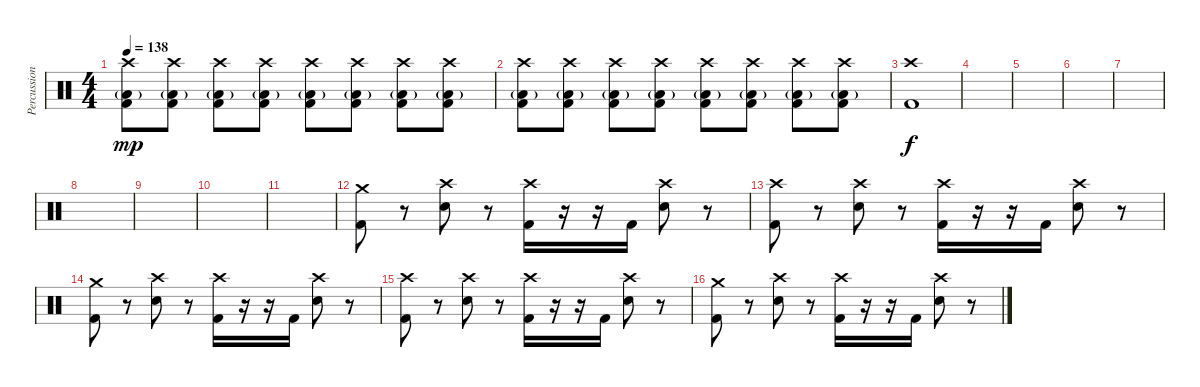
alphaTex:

\track ("Percussion" "Percussion") {instrument percussion}
\staff {score}
\articulation defaults
\ts (4 4)
\tempo 138
\clef neutral
\ks c
("Crash high (hit)" "Low Floor Tom (hit)"{g} "Kick (hit) 2").8{dy mp} ("Crash high (hit)" "Low Floor Tom (hit)"{g} "Kick (hit) 2").8 ("Crash high (hit)" "Low Floor Tom (hit)"{g} "Kick (hit) 2").8 ("Crash high (hit)" "Low Floor Tom (hit)"{g} "Kick (hit) 2").8 ("Crash high (hit)" "Low Floor Tom (hit)"{g} "Kick (hit) 2").8 ("Crash high (hit)" "Low Floor Tom (hit)"{g} "Kick (hit) 2").8 ("Crash high (hit)" "Low Floor Tom (hit)"{g} "Kick (hit) 2").8 ("Crash high (hit)" "Low Floor Tom (hit)"{g} "Kick (hit) 2").8 |
("Crash high (hit)" "Low Floor Tom (hit)"{g} "Kick (hit) 2").8 ("Crash high (hit)" "Low Floor Tom (hit)"{g} "Kick (hit) 2").8 ("Crash high (hit)" "Low Floor Tom (hit)"{g} "Kick (hit) 2").8 ("Crash high (hit)" "Low Floor Tom (hit)"{g} "Kick (hit) 2").8 ("Crash high (hit)" "Low Floor Tom (hit)"{g} "Kick (hit) 2").8 ("Crash high (hit)" "Low Floor Tom (hit)"{g} "Kick (hit) 2").8 ("Crash high (hit)" "Low Floor Tom (hit)"{g} "Kick (hit) 2").8 ("Crash high (hit)" "Low Floor Tom (hit)"{g} "Kick (hit) 2").8 |
("Crash high (hit)" "Kick (hit) 2").1{dy f} |
|
|
|
|
|
|
|
|
("Crash medium (hit)" "Kick (hit) 2").8 r.8 ("Crash high (hit)" "Electric Snare (hit)").8 r.8 ("Crash high (hit)" "Kick (hit) 2").16 r.16 r.16 "Kick (hit) 2".16 ("Crash high (hit)" "Electric Snare (hit)").8 r.8 |
("Crash high (hit)" "Kick (hit) 2").8 r.8 ("Crash high (hit)" "Electric Snare (hit)").8 r.8 ("Crash high (hit)" "Kick (hit) 2").16 r.16 r.16 "Kick (hit) 2".16 ("Crash high (hit)" "Electric Snare (hit)").8 r.8 |
("Crash medium (hit)" "Kick (hit) 2").8 r.8 ("Crash high (hit)" "Electric Snare (hit)").8 r.8 ("Crash high (hit)" "Kick (hit) 2").16 r.16 r.16 "Kick (hit) 2".16 ("Crash high (hit)" "Electric Snare (hit)").8 r.8 |
("Crash high (hit)" "Kick (hit) 2").8 r.8 ("Crash high (hit)" "Electric Snare (hit)").8 r.8 ("Crash high (hit)" "Kick (hit) 2").16 r.16 r.16 "Kick (hit) 2".16 ("Crash high (hit)" "Electric Snare (hit)").8 r.8 |
("Crash medium (hit)" "Kick (hit) 2").8 r.8 ("Crash high (hit)" "Electric Snare (hit)").8 r.8 ("Crash high (hit)" "Kick (hit) 2").16 r.16 r.16 "Kick (hit) 2".16 ("Crash high (hit)" "Electric Snare (hit)").8 r.8
